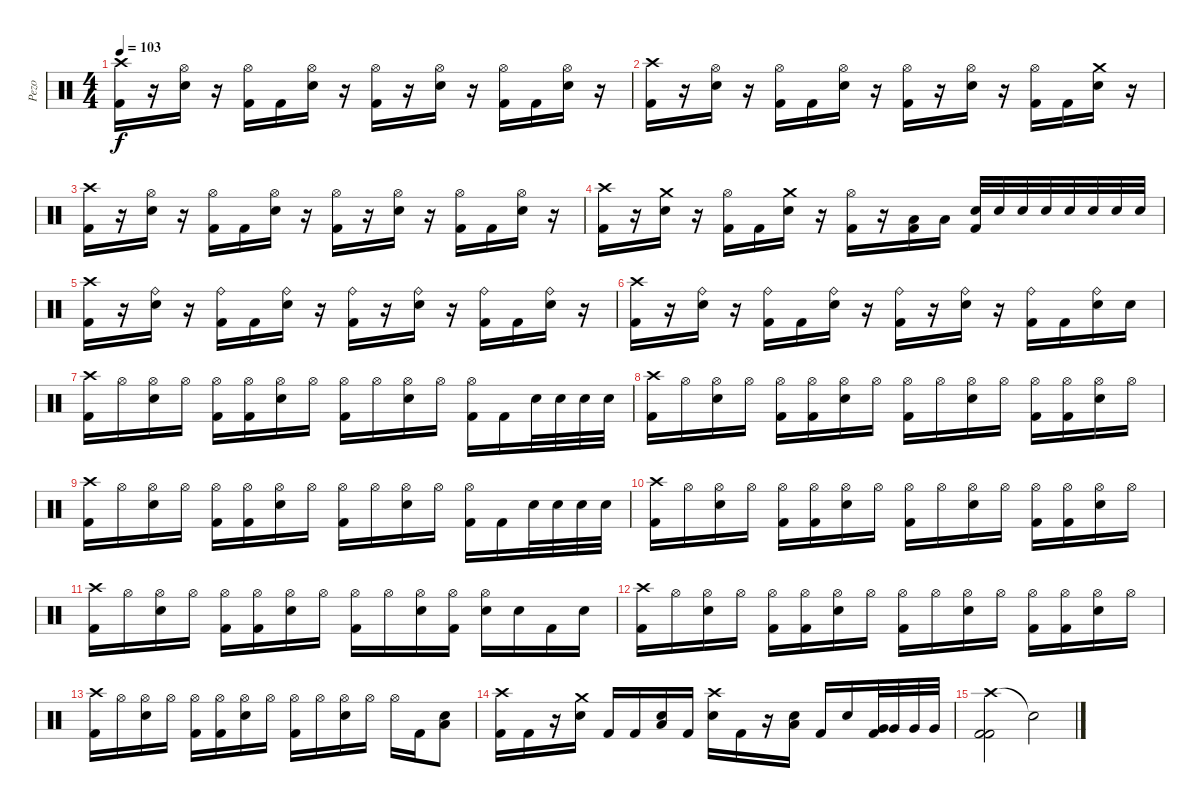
\track ("Pezo" "Pezo") {instrument percussion}
\staff {score}
\articulation defaults
\ts (4 4)
\tempo 103
\clef neutral
\ks c
("Crash high (hit)" "Kick (hit) 2").16{dy f} r.16 ("Hi-Hat (open)" "Electric Snare (hit)").16 r.16 ("Hi-Hat (open)" "Kick (hit) 2").16 "Kick (hit) 2".16 ("Hi-Hat (open)" "Electric Snare (hit)").16 r.16 ("Hi-Hat (open)" "Kick (hit) 2").16 r.16 ("Hi-Hat (open)" "Electric Snare (hit)").16 r.16 ("Hi-Hat (open)" "Kick (hit) 2").16 "Kick (hit) 2".16 ("Hi-Hat (open)" "Electric Snare (hit)").16 r.16 |
("Crash high (hit)" "Kick (hit) 2").16 r.16 ("Hi-Hat (open)" "Electric Snare (hit)").16 r.16 ("Hi-Hat (open)" "Kick (hit) 2").16 "Kick (hit) 2".16 ("Hi-Hat (open)" "Electric Snare (hit)").16 r.16 ("Hi-Hat (open)" "Kick (hit) 2").16 r.16 ("Hi-Hat (open)" "Electric Snare (hit)").16 r.16 ("Hi-Hat (open)" "Kick (hit) 2").16 "Kick (hit) 2".16 ("Crash medium (hit)" "Electric Snare (hit)").16 r.16 |
("Crash high (hit)" "Kick (hit) 2").16 r.16 ("Hi-Hat (open)" "Electric Snare (hit)").16 r.16 ("Hi-Hat (open)" "Kick (hit) 2").16 "Kick (hit) 2".16 ("Hi-Hat (open)" "Electric Snare (hit)").16 r.16 ("Hi-Hat (open)" "Kick (hit) 2").16 r.16 ("Hi-Hat (open)" "Electric Snare (hit)").16 r.16 ("Hi-Hat (open)" "Kick (hit) 2").16 "Kick (hit) 2".16 ("Hi-Hat (open)" "Electric Snare (hit)").16 r.16 |
("Crash high (hit)" "Kick (hit) 2").16 r.16 ("Crash medium (hit)" "Electric Snare (hit)").16 r.16 ("Hi-Hat (open)" "Kick (hit) 2").16 "Kick (hit) 2".16 ("Crash medium (hit)" "Electric Snare (hit)").16 r.16 ("Hi-Hat (open)" "Kick (hit) 2").16 r.16 ("Low Tom (hit)" "Kick (hit) 2").16 "Low Tom (hit)".16 ("Electric Snare (hit)" "Kick (hit) 2").32 "Electric Snare (hit)".32 "Electric Snare (hit)".32 "Electric Snare (hit)".32 "Electric Snare (hit)".32 "Electric Snare (hit)".32 "Electric Snare (hit)".32 "Electric Snare (hit)".32 |
("Crash high (hit)" "Kick (hit) 2").16 r.16 ("Ride (bell)" "Electric Snare (hit)").16 r.16 ("Ride (bell)" "Kick (hit) 2").16 "Kick (hit) 2".16 ("Ride (bell)" "Electric Snare (hit)").16 r.16 ("Ride (bell)" "Kick (hit) 2").16 r.16 ("Ride (bell)" "Electric Snare (hit)").16 r.16 ("Ride (bell)" "Kick (hit) 2").16 "Kick (hit) 2".16 ("Ride (bell)" "Electric Snare (hit)").16 r.16 |
("Crash high (hit)" "Kick (hit) 2").16 r.16 ("Ride (bell)" "Electric Snare (hit)").16 r.16 ("Ride (bell)" "Kick (hit) 2").16 "Kick (hit) 2".16 ("Ride (bell)" "Electric Snare (hit)").16 r.16 ("Ride (bell)" "Kick (hit) 2").16 r.16 ("Ride (bell)" "Electric Snare (hit)").16 r.16 ("Ride (bell)" "Kick (hit) 2").16 "Kick (hit) 2".16 ("Ride (bell)" "Electric Snare (hit)").16 "Electric Snare (hit)".16 |
("Crash high (hit)" "Kick (hit) 2").16 "Hi-Hat (open)".16 ("Hi-Hat (open)" "Electric Snare (hit)").16 "Hi-Hat (open)".16 ("Hi-Hat (open)" "Kick (hit) 2").16 ("Hi-Hat (open)" "Kick (hit) 2").16 ("Hi-Hat (open)" "Electric Snare (hit)").16 "Hi-Hat (open)".16 ("Hi-Hat (open)" "Kick (hit) 2").16 "Hi-Hat (open)".16 ("Hi-Hat (open)" "Electric Snare (hit)").16 "Hi-Hat (open)".16 ("Hi-Hat (open)" "Kick (hit) 2").16 "Kick (hit) 2".16 "Electric Snare (hit)".32 "Electric Snare (hit)".32 "Electric Snare (hit)".32 "Electric Snare (hit)".32 |
("Crash high (hit)" "Kick (hit) 2").16 "Hi-Hat (open)".16 ("Hi-Hat (open)" "Electric Snare (hit)").16 "Hi-Hat (open)".16 ("Hi-Hat (open)" "Kick (hit) 2").16 ("Hi-Hat (open)" "Kick (hit) 2").16 ("Hi-Hat (open)" "Electric Snare (hit)").16 "Hi-Hat (open)".16 ("Hi-Hat (open)" "Kick (hit) 2").16 "Hi-Hat (open)".16 ("Hi-Hat (open)" "Electric Snare (hit)").16 "Hi-Hat (open)".16 ("Hi-Hat (open)" "Kick (hit) 2").16 ("Hi-Hat (open)" "Kick (hit) 2").16 ("Hi-Hat (open)" "Electric Snare (hit)").16 "Hi-Hat (open)".16 |
("Crash high (hit)" "Kick (hit) 2").16 "Hi-Hat (open)".16 ("Hi-Hat (open)" "Electric Snare (hit)").16 "Hi-Hat (open)".16 ("Hi-Hat (open)" "Kick (hit) 2").16 ("Hi-Hat (open)" "Kick (hit) 2").16 ("Hi-Hat (open)" "Electric Snare (hit)").16 "Hi-Hat (open)".16 ("Hi-Hat (open)" "Kick (hit) 2").16 "Hi-Hat (open)".16 ("Hi-Hat (open)" "Electric Snare (hit)").16 "Hi-Hat (open)".16 ("Hi-Hat (open)" "Kick (hit) 2").16 "Kick (hit) 2".16 "Electric Snare (hit)".32 "Electric Snare (hit)".32 "Electric Snare (hit)".32 "Electric Snare (hit)".32 |
("Crash high (hit)" "Kick (hit) 2").16 "Hi-Hat (open)".16 ("Hi-Hat (open)" "Electric Snare (hit)").16 "Hi-Hat (open)".16 ("Hi-Hat (open)" "Kick (hit) 2").16 ("Hi-Hat (open)" "Kick (hit) 2").16 ("Hi-Hat (open)" "Electric Snare (hit)").16 "Hi-Hat (open)".16 ("Hi-Hat (open)" "Kick (hit) 2").16 "Hi-Hat (open)".16 ("Hi-Hat (open)" "Electric Snare (hit)").16 "Hi-Hat (open)".16 ("Hi-Hat (open)" "Kick (hit) 2").16 ("Hi-Hat (open)" "Kick (hit) 2").16 ("Hi-Hat (open)" "Electric Snare (hit)").16 "Hi-Hat (open)".16 |
("Crash high (hit)" "Kick (hit) 2").16 "Hi-Hat (open)".16 ("Hi-Hat (open)" "Electric Snare (hit)").16 "Hi-Hat (open)".16 ("Hi-Hat (open)" "Kick (hit) 2").16 ("Hi-Hat (open)" "Kick (hit) 2").16 ("Hi-Hat (open)" "Electric Snare (hit)").16 "Hi-Hat (open)".16 ("Hi-Hat (open)" "Kick (hit) 2").16 "Hi-Hat (open)".16 ("Hi-Hat (open)" "Electric Snare (hit)").16 ("Hi-Hat (open)" "Kick (hit) 2").16 ("Hi-Hat (open)" "Electric Snare (hit)").16 "Electric Snare (hit)".16 "Kick (hit) 2".16 "Electric Snare (hit)".16 |
("Crash high (hit)" "Kick (hit) 2").16 "Hi-Hat (open)".16 ("Hi-Hat (open)" "Electric Snare (hit)").16 "Hi-Hat (open)".16 ("Hi-Hat (open)" "Kick (hit) 2").16 ("Hi-Hat (open)" "Kick (hit) 2").16 ("Hi-Hat (open)" "Electric Snare (hit)").16 "Hi-Hat (open)".16 ("Hi-Hat (open)" "Kick (hit) 2").16 "Hi-Hat (open)".16 ("Hi-Hat (open)" "Electric Snare (hit)").16 "Hi-Hat (open)".16 ("Hi-Hat (open)" "Kick (hit) 2").16 ("Hi-Hat (open)" "Kick (hit) 2").16 ("Hi-Hat (open)" "Electric Snare (hit)").16 "Hi-Hat (open)".16 |
("Crash high (hit)" "Kick (hit) 2").16 "Hi-Hat (open)".16 ("Hi-Hat (open)" "Electric Snare (hit)").16 "Hi-Hat (open)".16 ("Hi-Hat (open)" "Kick (hit) 2").16 ("Hi-Hat (open)" "Kick (hit) 2").16 ("Hi-Hat (open)" "Electric Snare (hit)").16 "Hi-Hat (open)".16 ("Hi-Hat (open)" "Kick (hit) 2").16 "Hi-Hat (open)".16 ("Hi-Hat (open)" "Electric Snare (hit)").16 "Hi-Hat (open)".16 "Hi-Hat (open)".16 "Kick (hit) 2".16 ("Low Floor Tom (hit)" "Electric Snare (hit)").8 |
("Crash high (hit)" "Kick (hit) 2").16 "Kick (hit) 2".16 r.16 ("Crash medium (hit)" "Electric Snare (hit)").16 "Kick (hit) 2".16 "Kick (hit) 2".16 ("Low Floor Tom (hit)" "Electric Snare (hit)").16 "Kick (hit) 2".16 ("Crash high (hit)" "Electric Snare (hit)").16 "Kick (hit) 2".16 r.16 ("Low Floor Tom (hit)" "Electric Snare (hit)").16 "Kick (hit) 2".16 "Electric Snare (hit)".16 ("Very Low Tom (hit)" "Kick (hit) 2").32 "Very Low Tom (hit)".32 "Very Low Tom (hit)".32 "Very Low Tom (hit)".32 |
("Crash high (hit)" "Kick (hit) 2" "Kick (hit) 2").2 "Snare (hit)"{t}.2
